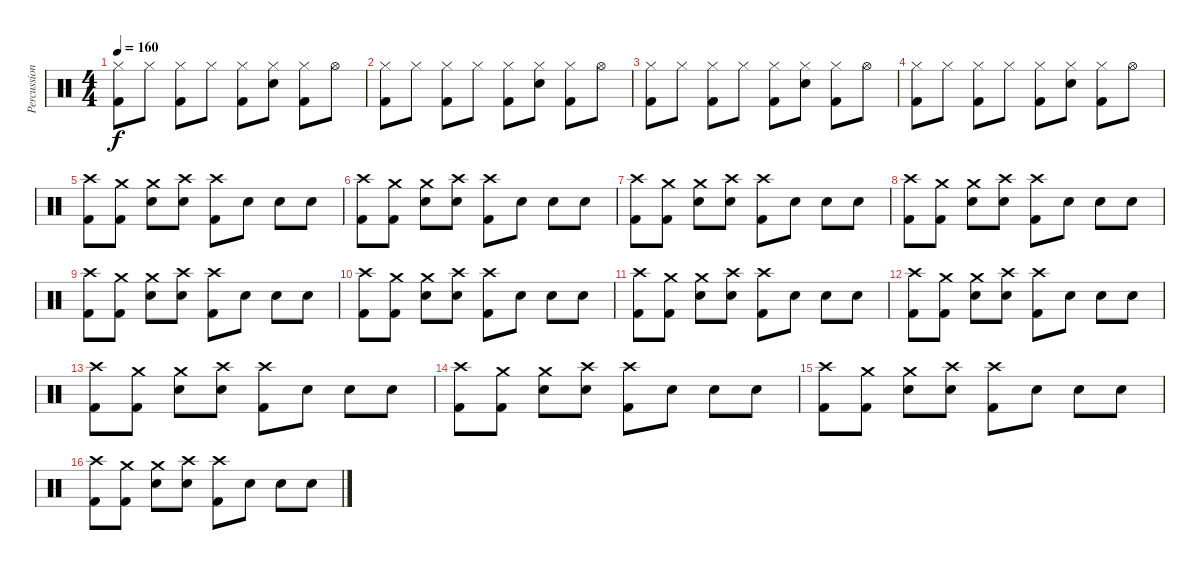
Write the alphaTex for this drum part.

\track ("Percussion" "Percussion") {instrument percussion}
\staff {score}
\articulation defaults
\ts (4 4)
\tempo 160
\clef neutral
\ks c
("Hi-Hat (closed)" "Kick (hit) 2").8{dy f} "Hi-Hat (closed)".8 ("Hi-Hat (closed)" "Kick (hit) 2").8 "Hi-Hat (closed)".8 ("Hi-Hat (closed)" "Kick (hit) 2").8 ("Hi-Hat (closed)" "Snare (hit) 2").8 ("Hi-Hat (closed)" "Kick (hit) 2").8 "Hi-Hat (open)".8 |
("Hi-Hat (closed)" "Kick (hit) 2").8 "Hi-Hat (closed)".8 ("Hi-Hat (closed)" "Kick (hit) 2").8 "Hi-Hat (closed)".8 ("Hi-Hat (closed)" "Kick (hit) 2").8 ("Hi-Hat (closed)" "Snare (hit) 2").8 ("Hi-Hat (closed)" "Kick (hit) 2").8 "Hi-Hat (open)".8 |
("Hi-Hat (closed)" "Kick (hit) 2").8 "Hi-Hat (closed)".8 ("Hi-Hat (closed)" "Kick (hit) 2").8 "Hi-Hat (closed)".8 ("Hi-Hat (closed)" "Kick (hit) 2").8 ("Hi-Hat (closed)" "Snare (hit) 2").8 ("Hi-Hat (closed)" "Kick (hit) 2").8 "Hi-Hat (open)".8 |
("Hi-Hat (closed)" "Kick (hit) 2").8 "Hi-Hat (closed)".8 ("Hi-Hat (closed)" "Kick (hit) 2").8 "Hi-Hat (closed)".8 ("Hi-Hat (closed)" "Kick (hit) 2").8 ("Hi-Hat (closed)" "Snare (hit) 2").8 ("Hi-Hat (closed)" "Kick (hit) 2").8 "Hi-Hat (open)".8 |
("Crash high (hit)" "Kick (hit) 2").8 ("Crash medium (hit)" "Kick (hit) 2").8 ("Crash medium (hit)" "Snare (hit) 2").8 ("Crash high (hit)" "Snare (hit) 2").8 ("Crash high (hit)" "Kick (hit) 2").8 "Snare (hit) 2".8 "Snare (hit) 2".8 "Snare (hit) 2".8 |
("Crash high (hit)" "Kick (hit) 2").8 ("Crash medium (hit)" "Kick (hit) 2").8 ("Crash medium (hit)" "Snare (hit) 2").8 ("Crash high (hit)" "Snare (hit) 2").8 ("Crash high (hit)" "Kick (hit) 2").8 "Snare (hit) 2".8 "Snare (hit) 2".8 "Snare (hit) 2".8 |
("Crash high (hit)" "Kick (hit) 2").8 ("Crash medium (hit)" "Kick (hit) 2").8 ("Crash medium (hit)" "Snare (hit) 2").8 ("Crash high (hit)" "Snare (hit) 2").8 ("Crash high (hit)" "Kick (hit) 2").8 "Snare (hit) 2".8 "Snare (hit) 2".8 "Snare (hit) 2".8 |
("Crash high (hit)" "Kick (hit) 2").8 ("Crash medium (hit)" "Kick (hit) 2").8 ("Crash medium (hit)" "Snare (hit) 2").8 ("Crash high (hit)" "Snare (hit) 2").8 ("Crash high (hit)" "Kick (hit) 2").8 "Snare (hit) 2".8 "Snare (hit) 2".8 "Snare (hit) 2".8 |
("Crash high (hit)" "Kick (hit) 2").8 ("Crash medium (hit)" "Kick (hit) 2").8 ("Crash medium (hit)" "Snare (hit) 2").8 ("Crash high (hit)" "Snare (hit) 2").8 ("Crash high (hit)" "Kick (hit) 2").8 "Snare (hit) 2".8 "Snare (hit) 2".8 "Snare (hit) 2".8 |
("Crash high (hit)" "Kick (hit) 2").8 ("Crash medium (hit)" "Kick (hit) 2").8 ("Crash medium (hit)" "Snare (hit) 2").8 ("Crash high (hit)" "Snare (hit) 2").8 ("Crash high (hit)" "Kick (hit) 2").8 "Snare (hit) 2".8 "Snare (hit) 2".8 "Snare (hit) 2".8 |
("Crash high (hit)" "Kick (hit) 2").8 ("Crash medium (hit)" "Kick (hit) 2").8 ("Crash medium (hit)" "Snare (hit) 2").8 ("Crash high (hit)" "Snare (hit) 2").8 ("Crash high (hit)" "Kick (hit) 2").8 "Snare (hit) 2".8 "Snare (hit) 2".8 "Snare (hit) 2".8 |
("Crash high (hit)" "Kick (hit) 2").8 ("Crash medium (hit)" "Kick (hit) 2").8 ("Crash medium (hit)" "Snare (hit) 2").8 ("Crash high (hit)" "Snare (hit) 2").8 ("Crash high (hit)" "Kick (hit) 2").8 "Snare (hit) 2".8 "Snare (hit) 2".8 "Snare (hit) 2".8 |
("Crash high (hit)" "Kick (hit) 2").8 ("Crash medium (hit)" "Kick (hit) 2").8 ("Crash medium (hit)" "Snare (hit) 2").8 ("Crash high (hit)" "Snare (hit) 2").8 ("Crash high (hit)" "Kick (hit) 2").8 "Snare (hit) 2".8 "Snare (hit) 2".8 "Snare (hit) 2".8 |
("Crash high (hit)" "Kick (hit) 2").8 ("Crash medium (hit)" "Kick (hit) 2").8 ("Crash medium (hit)" "Snare (hit) 2").8 ("Crash high (hit)" "Snare (hit) 2").8 ("Crash high (hit)" "Kick (hit) 2").8 "Snare (hit) 2".8 "Snare (hit) 2".8 "Snare (hit) 2".8 |
("Crash high (hit)" "Kick (hit) 2").8 ("Crash medium (hit)" "Kick (hit) 2").8 ("Crash medium (hit)" "Snare (hit) 2").8 ("Crash high (hit)" "Snare (hit) 2").8 ("Crash high (hit)" "Kick (hit) 2").8 "Snare (hit) 2".8 "Snare (hit) 2".8 "Snare (hit) 2".8 |
("Crash high (hit)" "Kick (hit) 2").8 ("Crash medium (hit)" "Kick (hit) 2").8 ("Crash medium (hit)" "Snare (hit) 2").8 ("Crash high (hit)" "Snare (hit) 2").8 ("Crash high (hit)" "Kick (hit) 2").8 "Snare (hit) 2".8 "Snare (hit) 2".8 "Snare (hit) 2".8
